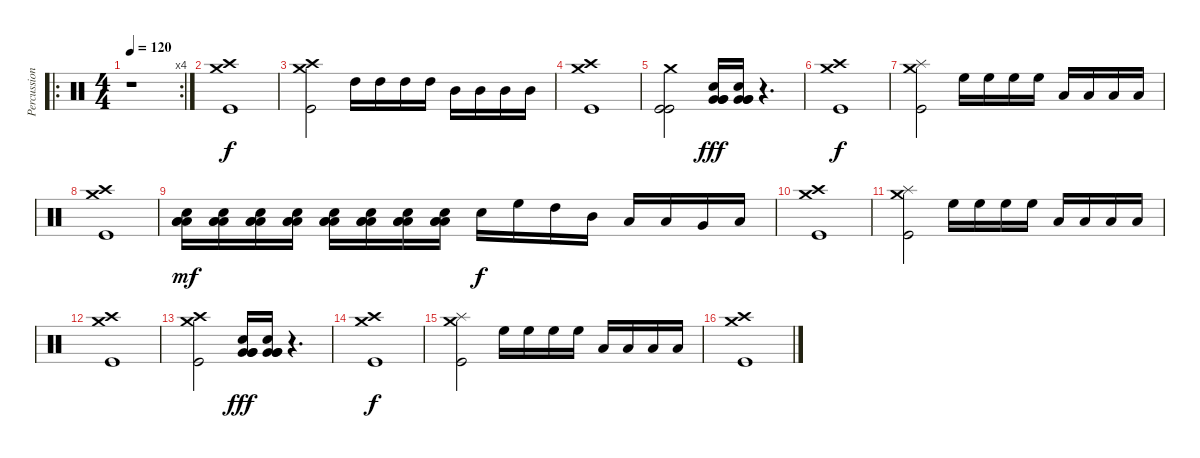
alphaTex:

\track ("Percussion" "Percussion") {instrument percussion}
\staff {score}
\articulation defaults
\ro
\rc 4
\ts (4 4)
\tempo 120
\clef neutral
\ks c
r.1{dy f} |
("Kick (hit)" "Crash high (hit)" "Crash medium (hit)").1 |
("Kick (hit)" "Crash high (hit)" "Crash medium (hit)").2 "High Tom (hit)".16 "High Tom (hit)".16 "High Tom (hit)".16 "High Tom (hit)".16 "Mid Tom (hit)".16 "Mid Tom (hit)".16 "Mid Tom (hit)".16 "Mid Tom (hit)".16 |
("Kick (hit)" "Crash high (hit)" "Crash medium (hit)").1 |
("Kick (hit)" "Kick (hit)" "Crash medium (hit)").2 ("Very Low Tom (hit)" "Very Low Tom (hit)" "Very Low Tom (hit)" "Snare (hit) 2").16{dy fff} ("Very Low Tom (hit)" "Very Low Tom (hit)" "Very Low Tom (hit)" "Snare (hit) 2").16 r.4{d} |
("Kick (hit)" "Crash high (hit)" "Crash medium (hit)").1{dy f} |
("Kick (hit)" "Splash (hit)" "Crash medium (hit)").2 "High Floor Tom (hit)".16 "High Floor Tom (hit)".16 "High Floor Tom (hit)".16 "High Floor Tom (hit)".16 "Low Tom (hit)".16 "Low Tom (hit)".16 "Low Tom (hit)".16 "Low Tom (hit)".16 |
("Kick (hit)" "Crash high (hit)" "Crash medium (hit)").1 |
("Low Floor Tom (hit)" "Low Floor Tom (hit)" "Low Floor Tom (hit)" "Snare (hit) 2").16{dy mf} ("Low Floor Tom (hit)" "Low Floor Tom (hit)" "Low Floor Tom (hit)" "Snare (hit) 2").16 ("Low Floor Tom (hit)" "Low Floor Tom (hit)" "Low Floor Tom (hit)" "Snare (hit) 2").16 ("Low Floor Tom (hit)" "Low Floor Tom (hit)" "Low Floor Tom (hit)" "Snare (hit) 2").16 ("Low Floor Tom (hit)" "Low Floor Tom (hit)" "Low Floor Tom (hit)" "Snare (hit) 2").16 ("Low Floor Tom (hit)" "Low Floor Tom (hit)" "Low Floor Tom (hit)" "Snare (hit) 2").16 ("Low Floor Tom (hit)" "Low Floor Tom (hit)" "Low Floor Tom (hit)" "Snare (hit) 2").16 ("Low Floor Tom (hit)" "Low Floor Tom (hit)" "Low Floor Tom (hit)" "Snare (hit) 2").16 "Snare (hit) 2".16{dy f} "High Floor Tom (hit)".16 "High Tom (hit)".16 "Mid Tom (hit)".16 "Low Tom (hit)".16 "Low Tom (hit)".16 "Very Low Tom (hit)".16 "Low Floor Tom (hit)".16 |
("Kick (hit)" "Crash high (hit)" "Crash medium (hit)").1 |
("Kick (hit)" "Splash (hit)" "Crash medium (hit)").2 "High Floor Tom (hit)".16 "High Floor Tom (hit)".16 "High Floor Tom (hit)".16 "High Floor Tom (hit)".16 "Low Tom (hit)".16 "Low Tom (hit)".16 "Low Tom (hit)".16 "Low Tom (hit)".16 |
("Kick (hit)" "Crash high (hit)" "Crash medium (hit)").1 |
("Kick (hit)" "Crash high (hit)" "Crash medium (hit)").2 ("Very Low Tom (hit)" "Very Low Tom (hit)" "Very Low Tom (hit)" "Snare (hit) 2").16{dy fff} ("Very Low Tom (hit)" "Very Low Tom (hit)" "Very Low Tom (hit)" "Snare (hit) 2").16 r.4{d} |
("Kick (hit)" "Crash high (hit)" "Crash medium (hit)").1{dy f} |
("Kick (hit)" "Splash (hit)" "Crash medium (hit)").2 "High Floor Tom (hit)".16 "High Floor Tom (hit)".16 "High Floor Tom (hit)".16 "High Floor Tom (hit)".16 "Low Tom (hit)".16 "Low Tom (hit)".16 "Low Tom (hit)".16 "Low Tom (hit)".16 |
("Kick (hit)" "Crash high (hit)" "Crash medium (hit)").1
